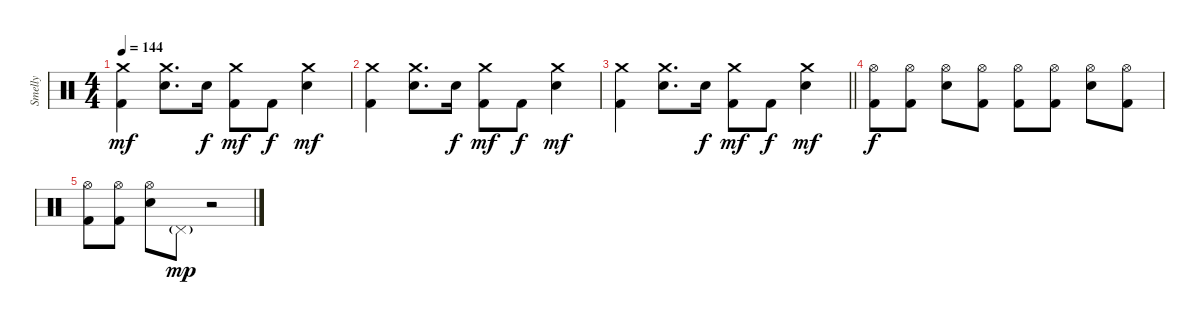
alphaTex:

\track ("Smelly" "Smelly") {instrument percussion}
\staff {score}
\articulation defaults
\ts (4 4)
\tempo 144
\clef neutral
\ks c
("Crash medium (hit)" "Kick (hit) 2").4{dy mf} ("Crash medium (hit)" "Electric Snare (hit)").8{d} "Electric Snare (hit)".16{dy f} ("Crash medium (hit)" "Kick (hit) 2").8{dy mf} "Kick (hit) 2".8{dy f} ("Crash medium (hit)" "Electric Snare (hit)").4{dy mf} |
("Crash medium (hit)" "Kick (hit) 2").4 ("Crash medium (hit)" "Electric Snare (hit)").8{d} "Electric Snare (hit)".16{dy f} ("Crash medium (hit)" "Kick (hit) 2").8{dy mf} "Kick (hit) 2".8{dy f} ("Crash medium (hit)" "Electric Snare (hit)").4{dy mf} |
\barLineRight lightlight
("Crash medium (hit)" "Kick (hit) 2").4 ("Crash medium (hit)" "Electric Snare (hit)").8{d} "Electric Snare (hit)".16{dy f} ("Crash medium (hit)" "Kick (hit) 2").8{dy mf} "Kick (hit) 2".8{dy f} ("Crash medium (hit)" "Electric Snare (hit)").4{dy mf} |
\section ("" "")
("Hi-Hat (open)" "Kick (hit) 2").8{dy f} ("Hi-Hat (open)" "Kick (hit) 2").8 ("Hi-Hat (open)" "Electric Snare (hit)").8 ("Hi-Hat (open)" "Kick (hit) 2").8 ("Hi-Hat (open)" "Kick (hit) 2").8 ("Hi-Hat (open)" "Kick (hit) 2").8 ("Hi-Hat (open)" "Electric Snare (hit)").8 ("Hi-Hat (open)" "Kick (hit) 2").8 |
("Hi-Hat (open)" "Kick (hit) 2").8 ("Hi-Hat (open)" "Kick (hit) 2").8 ("Hi-Hat (open)" "Electric Snare (hit)").8 "Pedal Hi-Hat (hit)"{g}.8{dy mp} r.2
